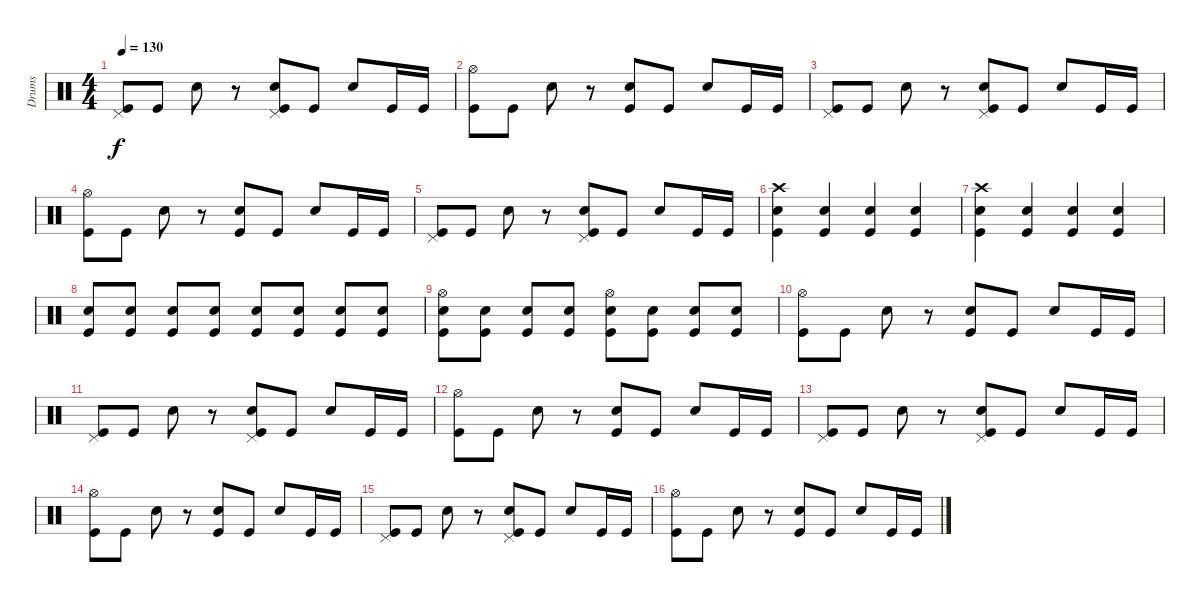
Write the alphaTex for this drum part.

\track ("Drums" "Drums") {instrument percussion}
\staff {score}
\articulation defaults
\ts (4 4)
\tempo 130
\clef neutral
\ks c
("Pedal Hi-Hat (hit)" "Kick (hit)").8{dy f} "Kick (hit)".8 "Snare (hit) 2".8 r.8 ("Pedal Hi-Hat (hit)" "Snare (hit) 2" "Kick (hit)").8 "Kick (hit)".8 "Snare (hit) 2".8 "Kick (hit)".16 "Kick (hit)".16 |
("Hi-Hat (open)" "Kick (hit)").8 "Kick (hit)".8 "Snare (hit) 2".8 r.8 ("Snare (hit) 2" "Kick (hit)").8 "Kick (hit)".8 "Snare (hit) 2".8 "Kick (hit)".16 "Kick (hit)".16 |
("Pedal Hi-Hat (hit)" "Kick (hit)").8 "Kick (hit)".8 "Snare (hit) 2".8 r.8 ("Pedal Hi-Hat (hit)" "Snare (hit) 2" "Kick (hit)").8 "Kick (hit)".8 "Snare (hit) 2".8 "Kick (hit)".16 "Kick (hit)".16 |
("Hi-Hat (open)" "Kick (hit)").8 "Kick (hit)".8 "Snare (hit) 2".8 r.8 ("Snare (hit) 2" "Kick (hit)").8 "Kick (hit)".8 "Snare (hit) 2".8 "Kick (hit)".16 "Kick (hit)".16 |
("Pedal Hi-Hat (hit)" "Kick (hit)").8 "Kick (hit)".8 "Snare (hit) 2".8 r.8 ("Pedal Hi-Hat (hit)" "Snare (hit) 2" "Kick (hit)").8 "Kick (hit)".8 "Snare (hit) 2".8 "Kick (hit)".16 "Kick (hit)".16 |
("Crash high (hit)" "Snare (hit) 2" "Kick (hit)").4 ("Snare (hit) 2" "Kick (hit)").4 ("Snare (hit) 2" "Kick (hit)").4 ("Snare (hit) 2" "Kick (hit)").4 |
("Crash high (hit)" "Snare (hit) 2" "Kick (hit)").4 ("Snare (hit) 2" "Kick (hit)").4 ("Snare (hit) 2" "Kick (hit)").4 ("Snare (hit) 2" "Kick (hit)").4 |
("Snare (hit) 2" "Kick (hit)").8 ("Snare (hit) 2" "Kick (hit)").8 ("Snare (hit) 2" "Kick (hit)").8 ("Snare (hit) 2" "Kick (hit)").8 ("Snare (hit) 2" "Kick (hit)").8 ("Snare (hit) 2" "Kick (hit)").8 ("Snare (hit) 2" "Kick (hit)").8 ("Snare (hit) 2" "Kick (hit)").8 |
("Hi-Hat (open)" "Snare (hit) 2" "Kick (hit)").8 ("Snare (hit) 2" "Kick (hit)").8 ("Snare (hit) 2" "Kick (hit)").8 ("Snare (hit) 2" "Kick (hit)").8 ("Hi-Hat (open)" "Snare (hit) 2" "Kick (hit)").8 ("Snare (hit) 2" "Kick (hit)").8 ("Snare (hit) 2" "Kick (hit)").8 ("Snare (hit) 2" "Kick (hit)").8 |
("Hi-Hat (open)" "Kick (hit)").8 "Kick (hit)".8 "Snare (hit) 2".8 r.8 ("Snare (hit) 2" "Kick (hit)").8 "Kick (hit)".8 "Snare (hit) 2".8 "Kick (hit)".16 "Kick (hit)".16 |
("Pedal Hi-Hat (hit)" "Kick (hit)").8 "Kick (hit)".8 "Snare (hit) 2".8 r.8 ("Pedal Hi-Hat (hit)" "Snare (hit) 2" "Kick (hit)").8 "Kick (hit)".8 "Snare (hit) 2".8 "Kick (hit)".16 "Kick (hit)".16 |
("Hi-Hat (open)" "Kick (hit)").8 "Kick (hit)".8 "Snare (hit) 2".8 r.8 ("Snare (hit) 2" "Kick (hit)").8 "Kick (hit)".8 "Snare (hit) 2".8 "Kick (hit)".16 "Kick (hit)".16 |
("Pedal Hi-Hat (hit)" "Kick (hit)").8 "Kick (hit)".8 "Snare (hit) 2".8 r.8 ("Pedal Hi-Hat (hit)" "Snare (hit) 2" "Kick (hit)").8 "Kick (hit)".8 "Snare (hit) 2".8 "Kick (hit)".16 "Kick (hit)".16 |
("Hi-Hat (open)" "Kick (hit)").8 "Kick (hit)".8 "Snare (hit) 2".8 r.8 ("Snare (hit) 2" "Kick (hit)").8 "Kick (hit)".8 "Snare (hit) 2".8 "Kick (hit)".16 "Kick (hit)".16 |
("Pedal Hi-Hat (hit)" "Kick (hit)").8 "Kick (hit)".8 "Snare (hit) 2".8 r.8 ("Pedal Hi-Hat (hit)" "Snare (hit) 2" "Kick (hit)").8 "Kick (hit)".8 "Snare (hit) 2".8 "Kick (hit)".16 "Kick (hit)".16 |
("Hi-Hat (open)" "Kick (hit)").8 "Kick (hit)".8 "Snare (hit) 2".8 r.8 ("Snare (hit) 2" "Kick (hit)").8 "Kick (hit)".8 "Snare (hit) 2".8 "Kick (hit)".16 "Kick (hit)".16
